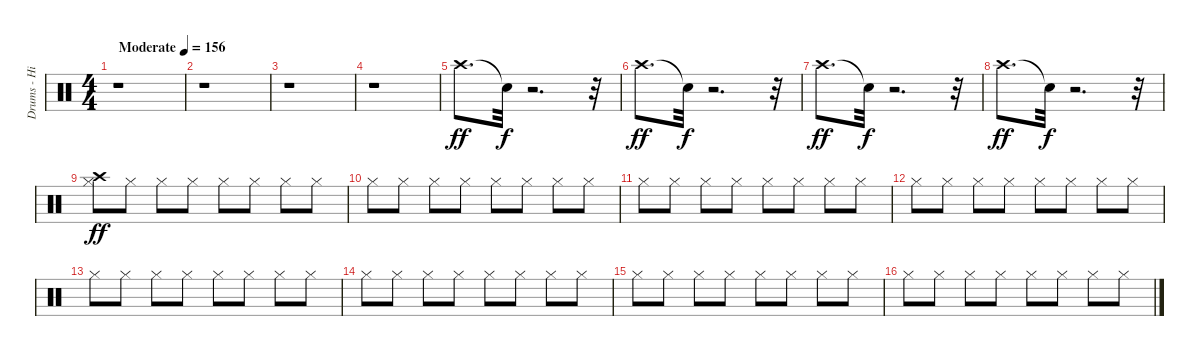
\track ("Drums - Hi Hat/Cymbals" "Drums - Hi") {instrument percussion}
\staff {score}
\articulation defaults
\ts (4 4)
\tempo (156 "Moderate")
\clef neutral
\ks c
r.1{dy ff} |
r.1 |
r.1 |
r.1 |
"Crash high (hit)".8{d} "Snare (hit)"{t}.32{dy f} r.2{d} r.32 |
"Crash high (hit)".8{d dy ff} "Snare (hit)"{t}.32{dy f} r.2{d} r.32 |
"Crash high (hit)".8{d dy ff} "Snare (hit)"{t}.32{dy f} r.2{d} r.32 |
"Crash high (hit)".8{d dy ff} "Snare (hit)"{t}.32{dy f} r.2{d} r.32 |
("Hi-Hat (closed)" "Crash high (hit)").8{dy ff} "Hi-Hat (closed)".8 "Hi-Hat (closed)".8 "Hi-Hat (closed)".8 "Hi-Hat (closed)".8 "Hi-Hat (closed)".8 "Hi-Hat (closed)".8 "Hi-Hat (closed)".8 |
"Hi-Hat (closed)".8 "Hi-Hat (closed)".8 "Hi-Hat (closed)".8 "Hi-Hat (closed)".8 "Hi-Hat (closed)".8 "Hi-Hat (closed)".8 "Hi-Hat (closed)".8 "Hi-Hat (closed)".8 |
"Hi-Hat (closed)".8 "Hi-Hat (closed)".8 "Hi-Hat (closed)".8 "Hi-Hat (closed)".8 "Hi-Hat (closed)".8 "Hi-Hat (closed)".8 "Hi-Hat (closed)".8 "Hi-Hat (closed)".8 |
"Hi-Hat (closed)".8 "Hi-Hat (closed)".8 "Hi-Hat (closed)".8 "Hi-Hat (closed)".8 "Hi-Hat (closed)".8 "Hi-Hat (closed)".8 "Hi-Hat (closed)".8 "Hi-Hat (closed)".8 |
"Hi-Hat (closed)".8 "Hi-Hat (closed)".8 "Hi-Hat (closed)".8 "Hi-Hat (closed)".8 "Hi-Hat (closed)".8 "Hi-Hat (closed)".8 "Hi-Hat (closed)".8 "Hi-Hat (closed)".8 |
"Hi-Hat (closed)".8 "Hi-Hat (closed)".8 "Hi-Hat (closed)".8 "Hi-Hat (closed)".8 "Hi-Hat (closed)".8 "Hi-Hat (closed)".8 "Hi-Hat (closed)".8 "Hi-Hat (closed)".8 |
"Hi-Hat (closed)".8 "Hi-Hat (closed)".8 "Hi-Hat (closed)".8 "Hi-Hat (closed)".8 "Hi-Hat (closed)".8 "Hi-Hat (closed)".8 "Hi-Hat (closed)".8 "Hi-Hat (closed)".8 |
"Hi-Hat (closed)".8 "Hi-Hat (closed)".8 "Hi-Hat (closed)".8 "Hi-Hat (closed)".8 "Hi-Hat (closed)".8 "Hi-Hat (closed)".8 "Hi-Hat (closed)".8 "Hi-Hat (closed)".8
